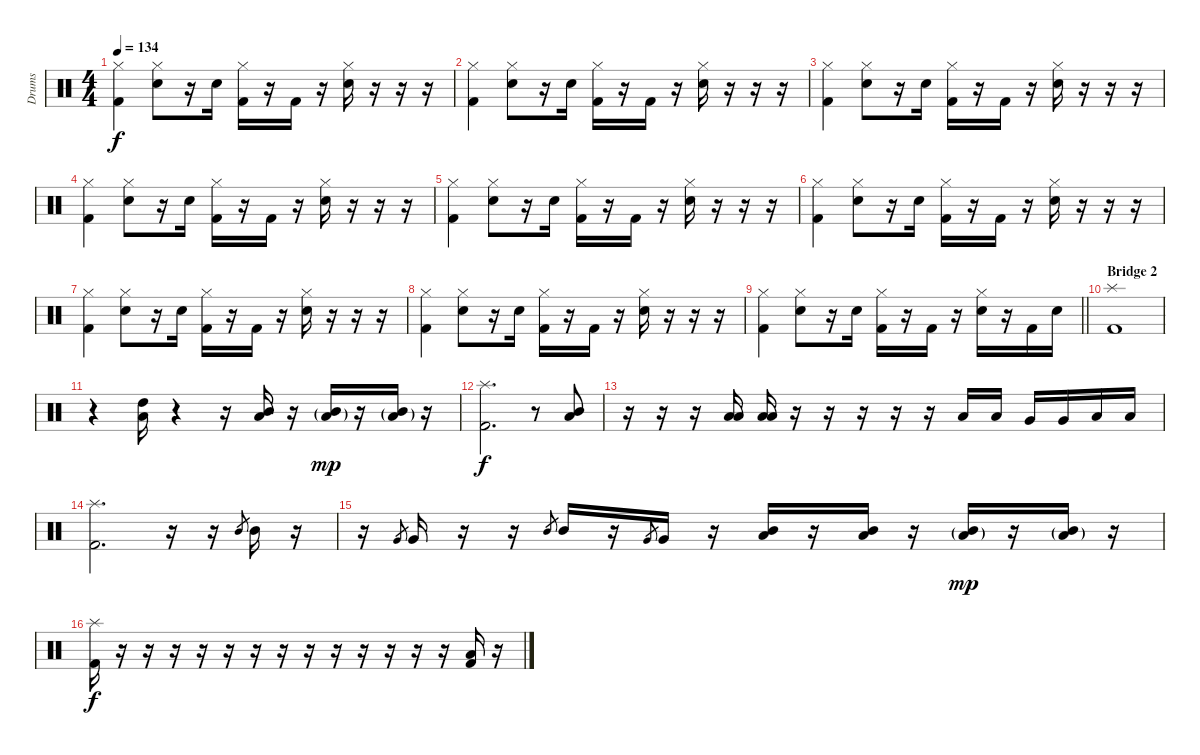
\track ("Drums" "Drums") {instrument percussion}
\staff {score}
\articulation defaults
\ts (4 4)
\tempo 134
\clef neutral
\ks c
("Hi-Hat (closed)" "Kick (hit) 2").4{dy f} ("Hi-Hat (closed)" "Electric Snare (hit)").8 r.16 "Electric Snare (hit)".16 ("Hi-Hat (closed)" "Kick (hit) 2").16 r.16 "Kick (hit) 2".16 r.16 ("Hi-Hat (closed)" "Electric Snare (hit)").16 r.16 r.16 r.16 |
("Hi-Hat (closed)" "Kick (hit) 2").4 ("Hi-Hat (closed)" "Electric Snare (hit)").8 r.16 "Electric Snare (hit)".16 ("Hi-Hat (closed)" "Kick (hit) 2").16 r.16 "Kick (hit) 2".16 r.16 ("Hi-Hat (closed)" "Electric Snare (hit)").16 r.16 r.16 r.16 |
("Hi-Hat (closed)" "Kick (hit) 2").4 ("Hi-Hat (closed)" "Electric Snare (hit)").8 r.16 "Electric Snare (hit)".16 ("Hi-Hat (closed)" "Kick (hit) 2").16 r.16 "Kick (hit) 2".16 r.16 ("Hi-Hat (closed)" "Electric Snare (hit)").16 r.16 r.16 r.16 |
("Hi-Hat (closed)" "Kick (hit) 2").4 ("Hi-Hat (closed)" "Electric Snare (hit)").8 r.16 "Electric Snare (hit)".16 ("Hi-Hat (closed)" "Kick (hit) 2").16 r.16 "Kick (hit) 2".16 r.16 ("Hi-Hat (closed)" "Electric Snare (hit)").16 r.16 r.16 r.16 |
("Hi-Hat (closed)" "Kick (hit) 2").4 ("Hi-Hat (closed)" "Electric Snare (hit)").8 r.16 "Electric Snare (hit)".16 ("Hi-Hat (closed)" "Kick (hit) 2").16 r.16 "Kick (hit) 2".16 r.16 ("Hi-Hat (closed)" "Electric Snare (hit)").16 r.16 r.16 r.16 |
("Hi-Hat (closed)" "Kick (hit) 2").4 ("Hi-Hat (closed)" "Electric Snare (hit)").8 r.16 "Electric Snare (hit)".16 ("Hi-Hat (closed)" "Kick (hit) 2").16 r.16 "Kick (hit) 2".16 r.16 ("Hi-Hat (closed)" "Electric Snare (hit)").16 r.16 r.16 r.16 |
("Hi-Hat (closed)" "Kick (hit) 2").4 ("Hi-Hat (closed)" "Electric Snare (hit)").8 r.16 "Electric Snare (hit)".16 ("Hi-Hat (closed)" "Kick (hit) 2").16 r.16 "Kick (hit) 2".16 r.16 ("Hi-Hat (closed)" "Electric Snare (hit)").16 r.16 r.16 r.16 |
("Hi-Hat (closed)" "Kick (hit) 2").4 ("Hi-Hat (closed)" "Electric Snare (hit)").8 r.16 "Electric Snare (hit)".16 ("Hi-Hat (closed)" "Kick (hit) 2").16 r.16 "Kick (hit) 2".16 r.16 ("Hi-Hat (closed)" "Electric Snare (hit)").16 r.16 r.16 r.16 |
\barLineRight lightlight
("Hi-Hat (closed)" "Kick (hit) 2").4 ("Hi-Hat (closed)" "Electric Snare (hit)").8 r.16 "Electric Snare (hit)".16 ("Hi-Hat (closed)" "Kick (hit) 2").16 r.16 "Kick (hit) 2".16 r.16 ("Hi-Hat (closed)" "Electric Snare (hit)").16 r.16 "Kick (hit) 2".16 "Electric Snare (hit)".16 |
\section ("" "Bridge 2")
("Splash (hit)" "Kick (hit) 2").1 |
r.4{volume 16} ("High Tom (hit)" "Low Floor Tom (hit)").16 r.4 r.16 ("Mid Tom (hit)" "Low Floor Tom (hit)").16 r.16 ("Mid Tom (hit)"{g} "Low Floor Tom (hit)"{g}).16{dy mp} r.16 ("Mid Tom (hit)"{g} "Low Floor Tom (hit)"{g}).16 r.16 |
("Splash (hit)" "Kick (hit) 2").2{d dy f} r.8 ("Mid Tom (hit)" "Low Floor Tom (hit)").8 |
r.16 r.16 r.16 ("Low Tom (hit)" "Low Floor Tom (hit)").16 ("Low Tom (hit)" "Low Floor Tom (hit)").16 r.16 r.16 r.16 r.16 r.16 "Low Tom (hit)".16 "Low Tom (hit)".16 "Very Low Tom (hit)".16 "Very Low Tom (hit)".16 "Low Floor Tom (hit)".16 "Low Floor Tom (hit)".16 |
("Splash (hit)" "Kick (hit) 2").2{d} r.16 r.16 "Mid Tom (hit)".8{gr} "Mid Tom (hit)".16 r.16 |
r.16 "Very Low Tom (hit)".8{gr} "Very Low Tom (hit)".16 r.16 r.16 "Mid Tom (hit)".8{gr} "Mid Tom (hit)".16 r.16 "Very Low Tom (hit)".8{gr} "Very Low Tom (hit)".16 r.16 ("Mid Tom (hit)" "Low Floor Tom (hit)").16 r.16 ("Mid Tom (hit)" "Low Floor Tom (hit)").16 r.16 ("Mid Tom (hit)"{g} "Low Floor Tom (hit)"{g}).16{dy mp} r.16 ("Mid Tom (hit)"{g} "Low Floor Tom (hit)"{g}).16 r.16 |
("Splash (hit)" "Kick (hit) 2").16{dy f} r.16 r.16 r.16 r.16 r.16 r.16 r.16 r.16 r.16 r.16 r.16 r.16 r.16 ("Low Floor Tom (hit)" "Kick (hit) 2").16 r.16
